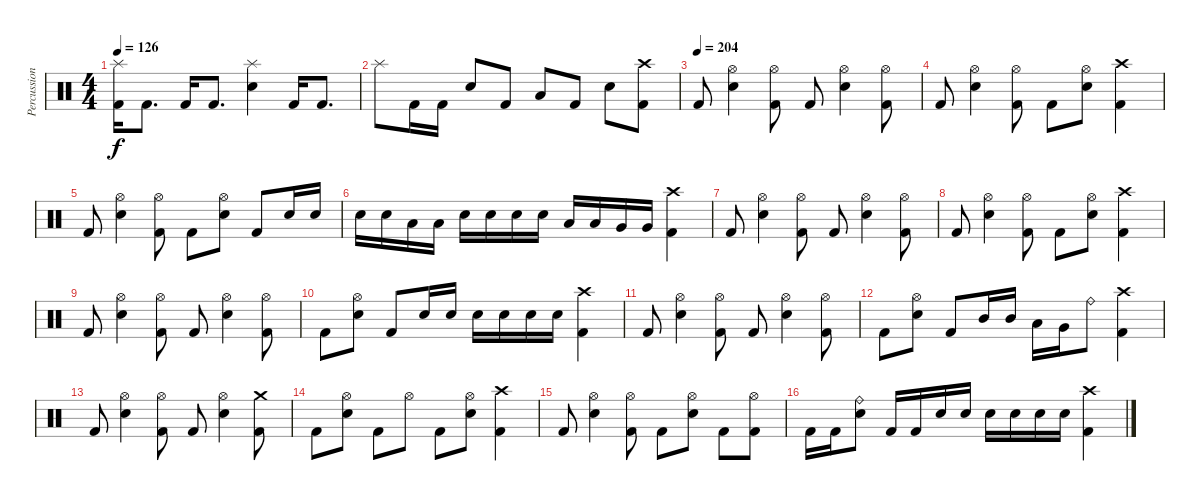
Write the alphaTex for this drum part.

\track ("Percussion" "Percussion") {instrument percussion}
\staff {score}
\articulation defaults
\ts (4 4)
\tempo 126
\clef neutral
\ks c
("Splash (hit)" "Kick (hit) 2").16{dy f} "Kick (hit) 2".8{d} "Kick (hit) 2".16 "Kick (hit) 2".8{d} ("Splash (hit)" "Electric Snare (hit)").4 "Kick (hit) 2".16 "Kick (hit) 2".8{d} |
"Splash (hit)".8 "Kick (hit) 2".16 "Kick (hit) 2".16 "Electric Snare (hit)".8 "Kick (hit) 2".8 "Low Tom (hit)".8 "Kick (hit) 2".8 "Electric Snare (hit)".8 ("Crash high (hit)" "Kick (hit) 2").8 |
\tempo (204)
"Kick (hit) 2".8 ("Hi-Hat (open)" "Electric Snare (hit)").4 ("Hi-Hat (open)" "Kick (hit) 2").8 "Kick (hit) 2".8 ("Hi-Hat (open)" "Electric Snare (hit)").4 ("Hi-Hat (open)" "Kick (hit) 2").8 |
"Kick (hit) 2".8 ("Hi-Hat (open)" "Electric Snare (hit)").4 ("Hi-Hat (open)" "Kick (hit) 2").8 "Kick (hit) 2".8 ("Hi-Hat (open)" "Electric Snare (hit)").8 ("Crash high (hit)" "Kick (hit) 2").4 |
"Kick (hit) 2".8 ("Hi-Hat (open)" "Electric Snare (hit)").4 ("Hi-Hat (open)" "Kick (hit) 2").8 "Kick (hit) 2".8 ("Hi-Hat (open)" "Electric Snare (hit)").8 "Kick (hit) 2".8 "Electric Snare (hit)".16 "Electric Snare (hit)".16 |
"Electric Snare (hit)".16 "Electric Snare (hit)".16 "Low Tom (hit)".16 "Low Tom (hit)".16 "Electric Snare (hit)".16 "Electric Snare (hit)".16 "Electric Snare (hit)".16 "Electric Snare (hit)".16 "Low Tom (hit)".16 "Low Tom (hit)".16 "Very Low Tom (hit)".16 "Very Low Tom (hit)".16 ("Crash high (hit)" "Kick (hit) 2").4 |
"Kick (hit) 2".8 ("Hi-Hat (open)" "Electric Snare (hit)").4 ("Hi-Hat (open)" "Kick (hit) 2").8 "Kick (hit) 2".8 ("Hi-Hat (open)" "Electric Snare (hit)").4 ("Hi-Hat (open)" "Kick (hit) 2").8 |
"Kick (hit) 2".8 ("Hi-Hat (open)" "Electric Snare (hit)").4 ("Hi-Hat (open)" "Kick (hit) 2").8 "Kick (hit) 2".8 ("Hi-Hat (open)" "Electric Snare (hit)").8 ("Crash high (hit)" "Kick (hit) 2").4 |
"Kick (hit) 2".8 ("Hi-Hat (open)" "Electric Snare (hit)").4 ("Hi-Hat (open)" "Kick (hit) 2").8 "Kick (hit) 2".8 ("Hi-Hat (open)" "Electric Snare (hit)").4 ("Hi-Hat (open)" "Kick (hit) 2").8 |
"Kick (hit) 2".8 ("Hi-Hat (open)" "Electric Snare (hit)").8 "Kick (hit) 2".8 "Electric Snare (hit)".16 "Electric Snare (hit)".16 "Electric Snare (hit)".16 "Electric Snare (hit)".16 "Electric Snare (hit)".16 "Electric Snare (hit)".16 ("Crash high (hit)" "Kick (hit) 2").4 |
"Kick (hit) 2".8 ("Hi-Hat (open)" "Electric Snare (hit)").4 ("Hi-Hat (open)" "Kick (hit) 2").8 "Kick (hit) 2".8 ("Hi-Hat (open)" "Electric Snare (hit)").4 ("Hi-Hat (open)" "Kick (hit) 2").8 |
"Kick (hit) 2".8 ("Hi-Hat (open)" "Electric Snare (hit)").8 "Kick (hit) 2".8 "Mid Tom (hit)".16 "Mid Tom (hit)".16 "Low Tom (hit)".16 "Very Low Tom (hit)".16 "Ride (bell)".8 ("Crash high (hit)" "Kick (hit) 2").4 |
"Kick (hit) 2".8 ("Hi-Hat (open)" "Electric Snare (hit)").4 ("Hi-Hat (open)" "Kick (hit) 2").8 "Kick (hit) 2".8 ("Hi-Hat (open)" "Electric Snare (hit)").4 ("Crash medium (hit)" "Kick (hit) 2").8 |
"Kick (hit) 2".8 ("Hi-Hat (open)" "Electric Snare (hit)").8 "Kick (hit) 2".8 "Hi-Hat (open)".8 "Kick (hit) 2".8 ("Hi-Hat (open)" "Electric Snare (hit)").8 ("Crash high (hit)" "Kick (hit) 2").4 |
"Kick (hit) 2".8 ("Hi-Hat (open)" "Electric Snare (hit)").4 ("Hi-Hat (open)" "Kick (hit) 2").8 "Kick (hit) 2".8 ("Hi-Hat (open)" "Electric Snare (hit)").8 "Kick (hit) 2".8 ("Hi-Hat (open)" "Kick (hit) 2").8 |
"Kick (hit) 2".16 "Kick (hit) 2".16 ("Ride (bell)" "Electric Snare (hit)").8 "Kick (hit) 2".16 "Kick (hit) 2".16 "Electric Snare (hit)".16 "Electric Snare (hit)".16 "Electric Snare (hit)".16 "Electric Snare (hit)".16 "Electric Snare (hit)".16 "Electric Snare (hit)".16 ("Crash high (hit)" "Kick (hit) 2").4
